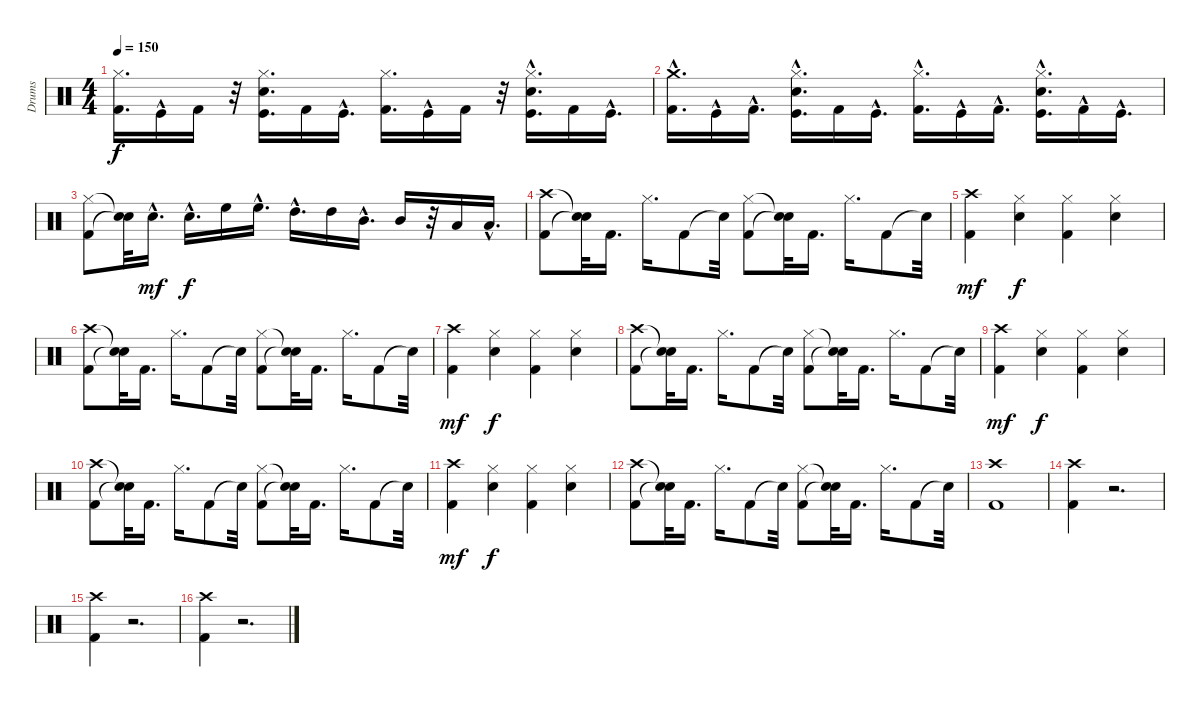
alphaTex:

\track ("Drums" "Drums") {instrument percussion}
\staff {score}
\articulation defaults
\ts (4 4)
\tempo 150
\clef neutral
\ks c
("Kick (hit) 2" "Hi-Hat (closed)").16{d dy f} "Kick (hit)"{hac}.16 "Kick (hit) 2".16 r.32 ("Hi-Hat (closed)" "Kick (hit)" "Snare (hit) 2").16{d} "Kick (hit) 2".16 "Kick (hit)"{hac}.16{d} ("Kick (hit) 2" "Hi-Hat (closed)").16{d} "Kick (hit)"{hac}.16 "Kick (hit) 2".16 r.32 ("Hi-Hat (closed)" "Kick (hit)"{hac} "Snare (hit) 2").16{d} "Kick (hit) 2".16 "Kick (hit)"{hac}.16{d} |
("Kick (hit) 2"{hac} "Crash medium (hit)").16{d} "Kick (hit)"{hac}.16 "Kick (hit) 2"{hac}.16{d} ("Kick (hit)"{hac} "Snare (hit) 2" "Hi-Hat (closed)").16{d} "Kick (hit) 2".16 "Kick (hit)"{hac}.16{d} ("Kick (hit) 2"{hac} "Hi-Hat (closed)").16{d} "Kick (hit)"{hac}.16 "Kick (hit) 2"{hac}.16{d} ("Kick (hit)"{hac} "Hi-Hat (closed)" "Snare (hit) 2").16{d} "Kick (hit) 2"{hac}.16 "Kick (hit)"{hac}.16{d} |
("Hi-Hat (closed)" "Kick (hit) 2").8 ("Snare (hit)"{t} "Snare (hit)"{t}).32 "Snare (hit) 2"{hac}.16{d dy mf} "Snare (hit) 2"{hac}.16{d dy f} "High Floor Tom (hit)".16 "High Floor Tom (hit)"{hac}.16{d} "High Tom (hit)"{hac}.16{d} "High Tom (hit)".16 "Mid Tom (hit)"{hac}.16{d} "Mid Tom (hit)".16 r.32 "Low Tom (hit)".16 "Low Tom (hit)"{hac}.16{d} |
("Crash high (hit)" "Kick (hit) 2").8 ("Snare (hit)"{t} "Snare (hit)"{t}).32 "Kick (hit) 2".16{d} "Hi-Hat (closed)".16{d} "Kick (hit) 2".8 "Snare (hit)"{t}.32 ("Kick (hit) 2" "Hi-Hat (closed)").8 ("Snare (hit)"{t} "Snare (hit)"{t}).32 "Kick (hit) 2".16{d} "Hi-Hat (closed)".16{d} "Kick (hit) 2".8 "Snare (hit)"{t}.32 |
("Crash high (hit)" "Kick (hit) 2").4{dy mf} ("Snare (hit) 2" "Hi-Hat (closed)").4{dy f} ("Hi-Hat (closed)" "Kick (hit) 2").4 ("Hi-Hat (closed)" "Snare (hit) 2").4 |
("Kick (hit) 2" "Crash high (hit)").8 ("Snare (hit)"{t} "Snare (hit)"{t}).32 "Kick (hit) 2".16{d} "Hi-Hat (closed)".16{d} "Kick (hit) 2".8 "Snare (hit)"{t}.32 ("Kick (hit) 2" "Hi-Hat (closed)").8 ("Snare (hit)"{t} "Snare (hit)"{t}).32 "Kick (hit) 2".16{d} "Hi-Hat (closed)".16{d} "Kick (hit) 2".8 "Snare (hit)"{t}.32 |
("Kick (hit) 2" "Crash high (hit)").4{dy mf} ("Snare (hit) 2" "Hi-Hat (closed)").4{dy f} ("Hi-Hat (closed)" "Kick (hit) 2").4 ("Snare (hit) 2" "Hi-Hat (closed)").4 |
("Crash high (hit)" "Kick (hit) 2").8 ("Snare (hit)"{t} "Snare (hit)"{t}).32 "Kick (hit) 2".16{d} "Hi-Hat (closed)".16{d} "Kick (hit) 2".8 "Snare (hit)"{t}.32 ("Kick (hit) 2" "Hi-Hat (closed)").8 ("Snare (hit)"{t} "Snare (hit)"{t}).32 "Kick (hit) 2".16{d} "Hi-Hat (closed)".16{d} "Kick (hit) 2".8 "Snare (hit)"{t}.32 |
("Crash high (hit)" "Kick (hit) 2").4{dy mf} ("Hi-Hat (closed)" "Snare (hit) 2").4{dy f} ("Kick (hit) 2" "Hi-Hat (closed)").4 ("Snare (hit) 2" "Hi-Hat (closed)").4 |
("Crash high (hit)" "Kick (hit) 2").8 ("Snare (hit)"{t} "Snare (hit)"{t}).32 "Kick (hit) 2".16{d} "Hi-Hat (closed)".16{d} "Kick (hit) 2".8 "Snare (hit)"{t}.32 ("Kick (hit) 2" "Hi-Hat (closed)").8 ("Snare (hit)"{t} "Snare (hit)"{t}).32 "Kick (hit) 2".16{d} "Hi-Hat (closed)".16{d} "Kick (hit) 2".8 "Snare (hit)"{t}.32 |
("Crash high (hit)" "Kick (hit) 2").4{dy mf} ("Hi-Hat (closed)" "Snare (hit) 2").4{dy f} ("Hi-Hat (closed)" "Kick (hit) 2").4 ("Hi-Hat (closed)" "Snare (hit) 2").4 |
("Crash high (hit)" "Kick (hit) 2").8 ("Snare (hit)"{t} "Snare (hit)"{t}).32 "Kick (hit) 2".16{d} "Hi-Hat (closed)".16{d} "Kick (hit) 2".8 "Snare (hit)"{t}.32 ("Kick (hit) 2" "Hi-Hat (closed)").8 ("Snare (hit)"{t} "Snare (hit)"{t}).32 "Kick (hit) 2".16{d} "Hi-Hat (closed)".16{d} "Kick (hit) 2".8 "Snare (hit)"{t}.32 |
("Crash high (hit)" "Kick (hit) 2").1 |
("Kick (hit) 2" "Crash high (hit)").4 r.2{d} |
("Crash high (hit)" "Kick (hit) 2").4 r.2{d} |
("Crash high (hit)" "Kick (hit) 2").4 r.2{d}
